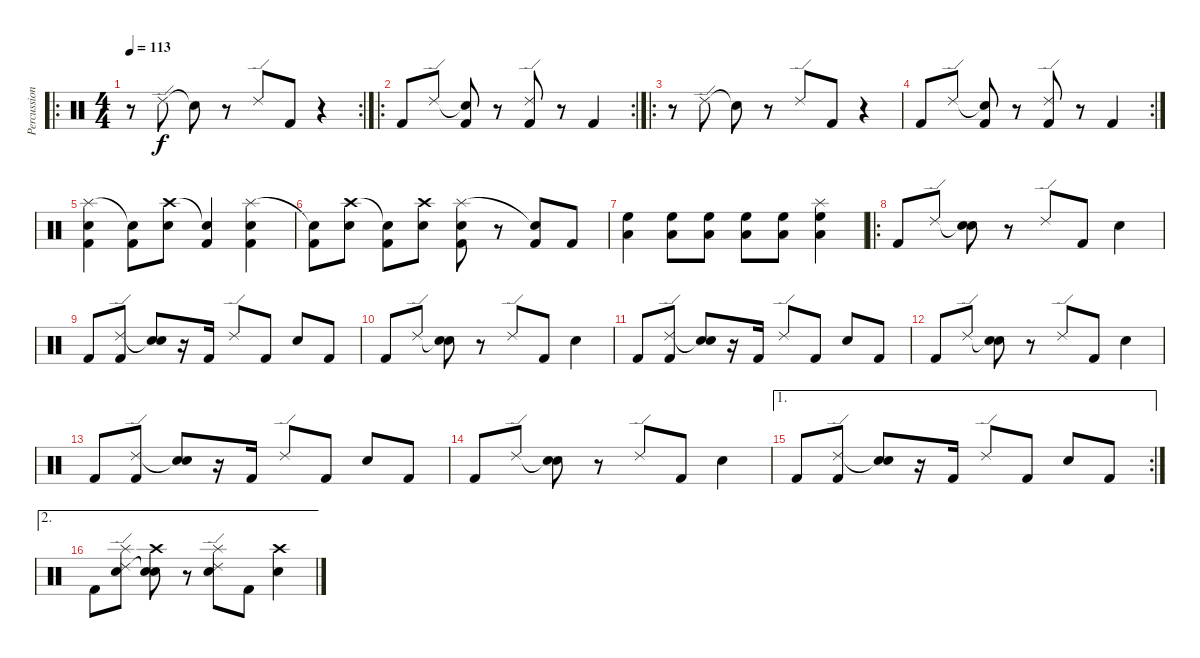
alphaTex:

\track ("Percussion" "Percussion") {instrument percussion}
\staff {score}
\articulation defaults
\ro
\rc 2
\ts (4 4)
\tempo 113
\clef neutral
\ks c
r.8{dy f} "Ride (edge) 2".8 "Snare (hit)"{t}.8 r.8 "Ride (edge) 2".8 "Kick (hit) 2".8 r.4 |
\ro
\rc 2 "Kick (hit) 2".8 "Ride (edge) 2".8
("Snare (hit)"{t} "Kick (hit) 2").8 r.8 ("Ride (edge) 2" "Kick (hit) 2").8 r.8 "Kick (hit) 2".4 |
\ro
r.8 "Ride (edge) 2".8 "Snare (hit)"{t}.8 r.8 "Ride (edge) 2".8 "Kick (hit) 2".8 r.4 |
\rc 2 "Kick (hit) 2".8 "Ride (edge) 2".8
("Snare (hit)"{t} "Kick (hit) 2").8 r.8 ("Ride (edge) 2" "Kick (hit) 2").8 r.8 "Kick (hit) 2".4 |
("Splash (hit)" "Snare (hit) 2" "Kick (hit) 2").4 ("Snare (hit)"{t} "Kick (hit) 2").8 ("Crash high (hit)" "Snare (hit) 2").8 ("Snare (hit)"{t} "Kick (hit) 2").4 ("Splash (hit)" "Snare (hit) 2" "Kick (hit) 2").4 |
("Snare (hit)"{t} "Kick (hit) 2").8 ("Crash high (hit)" "Snare (hit) 2").8 ("Snare (hit)"{t} "Kick (hit) 2").8 ("Crash high (hit)" "Snare (hit) 2").8 ("Splash (hit)" "Snare (hit) 2" "Kick (hit) 2").8 r.8 ("Snare (hit)"{t} "Kick (hit) 2").8 "Kick (hit) 2".8 |
("High Floor Tom (hit)" "Low Tom (hit)").4 ("High Floor Tom (hit)" "Low Tom (hit)").8 ("High Floor Tom (hit)" "Low Tom (hit)").8 ("High Floor Tom (hit)" "Low Tom (hit)").8 ("High Floor Tom (hit)" "Low Tom (hit)").8 ("Splash (hit)" "High Floor Tom (hit)" "Low Tom (hit)").4 |
\ro "Kick (hit) 2".8 "Ride (edge) 2".8
("Snare (hit)"{t} "Snare (hit) 2").8 r.8 "Ride (edge) 2".8 "Kick (hit) 2".8 "Snare (hit) 2".4 |
"Kick (hit) 2".8 ("Ride (edge) 2" "Kick (hit) 2").8 ("Snare (hit)"{t} "Snare (hit) 2").8 r.16 "Kick (hit) 2".16 "Ride (edge) 2".8 "Kick (hit) 2".8 "Snare (hit) 2".8 "Kick (hit) 2".8 |
"Kick (hit) 2".8 "Ride (edge) 2".8 ("Snare (hit)"{t} "Snare (hit) 2").8 r.8 "Ride (edge) 2".8 "Kick (hit) 2".8 "Snare (hit) 2".4 |
"Kick (hit) 2".8 ("Ride (edge) 2" "Kick (hit) 2").8 ("Snare (hit)"{t} "Snare (hit) 2").8 r.16 "Kick (hit) 2".16 "Ride (edge) 2".8 "Kick (hit) 2".8 "Snare (hit) 2".8 "Kick (hit) 2".8 |
"Kick (hit) 2".8 "Ride (edge) 2".8 ("Snare (hit)"{t} "Snare (hit) 2").8 r.8 "Ride (edge) 2".8 "Kick (hit) 2".8 "Snare (hit) 2".4 |
"Kick (hit) 2".8 ("Ride (edge) 2" "Kick (hit) 2").8 ("Snare (hit)"{t} "Snare (hit) 2").8 r.16 "Kick (hit) 2".16 "Ride (edge) 2".8 "Kick (hit) 2".8 "Snare (hit) 2".8 "Kick (hit) 2".8 |
"Kick (hit) 2".8 "Ride (edge) 2".8 ("Snare (hit)"{t} "Snare (hit) 2").8 r.8 "Ride (edge) 2".8 "Kick (hit) 2".8 "Snare (hit) 2".4 |
\ae 1
\rc 2 "Kick (hit) 2".8
("Ride (edge) 2" "Kick (hit) 2").8 ("Snare (hit)"{t} "Snare (hit) 2").8 r.16 "Kick (hit) 2".16 "Ride (edge) 2".8 "Kick (hit) 2".8 "Snare (hit) 2".8 "Kick (hit) 2".8 |
\ae 2 "Kick (hit) 2".8
("Ride (edge) 2" "Splash (hit)" "Snare (hit) 2").8 ("Snare (hit)"{t} "Crash high (hit)" "Snare (hit) 2").8 r.8 ("Ride (edge) 2" "Splash (hit)" "Snare (hit) 2").8 "Kick (hit) 2".8 ("Crash high (hit)" "Snare (hit) 2").4
